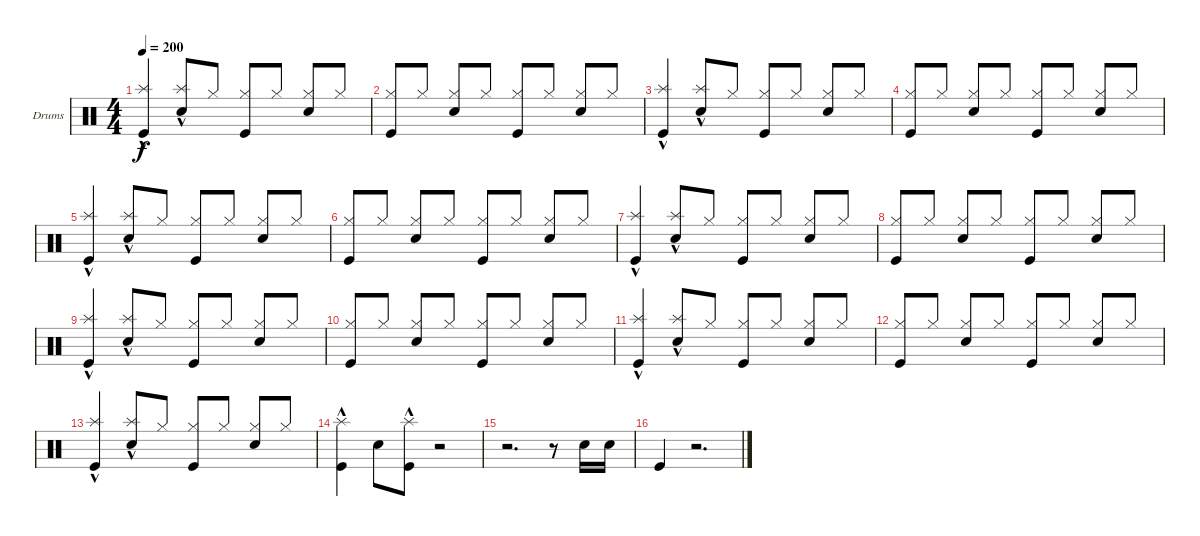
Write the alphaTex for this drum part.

\defaultSystemsLayout 4
\bracketExtendMode groupsimilarinstruments
\firstSystemTrackNameOrientation horizontal
\otherSystemsTrackNameOrientation horizontal
\track ("Drumkit" "Drums") {instrument percussion}
\staff {score}
\articulation defaults
\ts (4 4)
\tempo 200
\clef neutral
\ks c
("Kick (hit)" "Splash (hit)"{hac}).4{dy f} ("Snare (hit) 2" "Splash (hit)"{hac}).8{beam invert} "Hi-Hat (closed)".8 ("Hi-Hat (closed)" "Kick (hit)").8{beam invert} "Hi-Hat (closed)".8 ("Hi-Hat (closed)" "Snare (hit) 2").8{beam invert} "Hi-Hat (closed)".8 |
("Hi-Hat (closed)" "Kick (hit)").8{beam invert} "Hi-Hat (closed)".8 ("Hi-Hat (closed)" "Snare (hit) 2").8{beam invert} "Hi-Hat (closed)".8 ("Hi-Hat (closed)" "Kick (hit)").8{beam invert} "Hi-Hat (closed)".8 ("Hi-Hat (closed)" "Snare (hit) 2").8{beam invert} "Hi-Hat (closed)".8 |
("Kick (hit)" "Splash (hit)"{hac}).4 ("Snare (hit) 2" "Splash (hit)"{hac}).8{beam invert} "Hi-Hat (closed)".8 ("Hi-Hat (closed)" "Kick (hit)").8{beam invert} "Hi-Hat (closed)".8 ("Hi-Hat (closed)" "Snare (hit) 2").8{beam invert} "Hi-Hat (closed)".8 |
("Hi-Hat (closed)" "Kick (hit)").8{beam invert} "Hi-Hat (closed)".8 ("Hi-Hat (closed)" "Snare (hit) 2").8{beam invert} "Hi-Hat (closed)".8 ("Hi-Hat (closed)" "Kick (hit)").8{beam invert} "Hi-Hat (closed)".8 ("Hi-Hat (closed)" "Snare (hit) 2").8{beam invert} "Hi-Hat (closed)".8 |
("Kick (hit)" "Splash (hit)"{hac}).4 ("Snare (hit) 2" "Splash (hit)"{hac}).8{beam invert} "Hi-Hat (closed)".8 ("Hi-Hat (closed)" "Kick (hit)").8{beam invert} "Hi-Hat (closed)".8 ("Hi-Hat (closed)" "Snare (hit) 2").8{beam invert} "Hi-Hat (closed)".8 |
("Hi-Hat (closed)" "Kick (hit)").8{beam invert} "Hi-Hat (closed)".8 ("Hi-Hat (closed)" "Snare (hit) 2").8{beam invert} "Hi-Hat (closed)".8 ("Hi-Hat (closed)" "Kick (hit)").8{beam invert} "Hi-Hat (closed)".8 ("Hi-Hat (closed)" "Snare (hit) 2").8{beam invert} "Hi-Hat (closed)".8 |
("Kick (hit)" "Splash (hit)"{hac}).4 ("Snare (hit) 2" "Splash (hit)"{hac}).8{beam invert} "Hi-Hat (closed)".8 ("Hi-Hat (closed)" "Kick (hit)").8{beam invert} "Hi-Hat (closed)".8 ("Hi-Hat (closed)" "Snare (hit) 2").8{beam invert} "Hi-Hat (closed)".8 |
("Hi-Hat (closed)" "Kick (hit)").8{beam invert} "Hi-Hat (closed)".8 ("Hi-Hat (closed)" "Snare (hit) 2").8{beam invert} "Hi-Hat (closed)".8 ("Hi-Hat (closed)" "Kick (hit)").8{beam invert} "Hi-Hat (closed)".8 ("Hi-Hat (closed)" "Snare (hit) 2").8{beam invert} "Hi-Hat (closed)".8 |
("Kick (hit)" "Splash (hit)"{hac}).4 ("Snare (hit) 2" "Splash (hit)"{hac}).8{beam invert} "Hi-Hat (closed)".8 ("Hi-Hat (closed)" "Kick (hit)").8{beam invert} "Hi-Hat (closed)".8 ("Hi-Hat (closed)" "Snare (hit) 2").8{beam invert} "Hi-Hat (closed)".8 |
("Hi-Hat (closed)" "Kick (hit)").8{beam invert} "Hi-Hat (closed)".8 ("Hi-Hat (closed)" "Snare (hit) 2").8{beam invert} "Hi-Hat (closed)".8 ("Hi-Hat (closed)" "Kick (hit)").8{beam invert} "Hi-Hat (closed)".8 ("Hi-Hat (closed)" "Snare (hit) 2").8{beam invert} "Hi-Hat (closed)".8 |
("Kick (hit)" "Splash (hit)"{hac}).4 ("Snare (hit) 2" "Splash (hit)"{hac}).8{beam invert} "Hi-Hat (closed)".8 ("Hi-Hat (closed)" "Kick (hit)").8{beam invert} "Hi-Hat (closed)".8 ("Hi-Hat (closed)" "Snare (hit) 2").8{beam invert} "Hi-Hat (closed)".8 |
("Hi-Hat (closed)" "Kick (hit)").8{beam invert} "Hi-Hat (closed)".8 ("Hi-Hat (closed)" "Snare (hit) 2").8{beam invert} "Hi-Hat (closed)".8 ("Hi-Hat (closed)" "Kick (hit)").8{beam invert} "Hi-Hat (closed)".8 ("Hi-Hat (closed)" "Snare (hit) 2").8{beam invert} "Hi-Hat (closed)".8 |
("Kick (hit)" "Splash (hit)"{hac}).4 ("Snare (hit) 2" "Splash (hit)"{hac}).8{beam invert} "Hi-Hat (closed)".8 ("Hi-Hat (closed)" "Kick (hit)").8{beam invert} "Hi-Hat (closed)".8 ("Hi-Hat (closed)" "Snare (hit) 2").8{beam invert} "Hi-Hat (closed)".8 |
("Kick (hit)" "Splash (hit)"{hac}).4 "Snare (hit) 2".8 ("Kick (hit)" "Splash (hit)"{hac}).8 r.2 |
r.2{d} r.8 "Snare (hit) 2".16 "Snare (hit) 2".16 |
"Kick (hit)".4 r.2{d}
